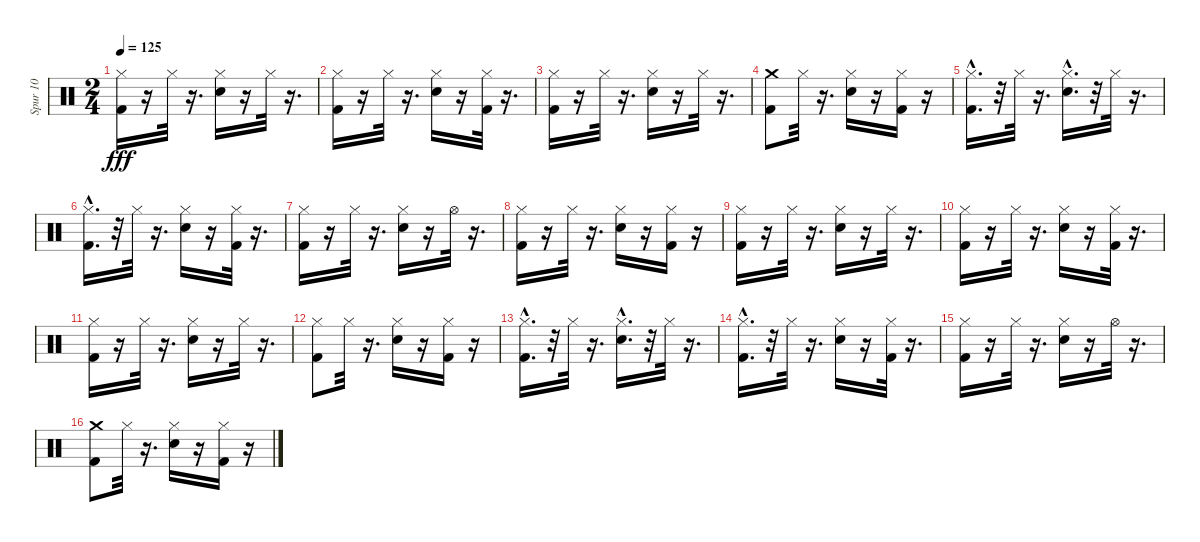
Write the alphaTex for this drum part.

\track ("Spur 10" "Spur 10") {instrument percussion}
\staff {score}
\articulation defaults
\ts (2 4)
\tempo 125
\clef neutral
\ks c
("Kick (hit) 2" "Hi-Hat (closed)").16{dy fff} r.16 "Hi-Hat (closed)".32 r.16{d} ("Snare (hit) 2" "Hi-Hat (closed)").16 r.16 "Hi-Hat (closed)".32 r.16{d} |
("Kick (hit) 2" "Hi-Hat (closed)").16 r.16 "Hi-Hat (closed)".32 r.16{d} ("Snare (hit) 2" "Hi-Hat (closed)").16 r.16 ("Kick (hit) 2" "Hi-Hat (closed)").32 r.16{d} |
("Kick (hit) 2" "Hi-Hat (closed)").16 r.16 "Hi-Hat (closed)".32 r.16{d} ("Snare (hit) 2" "Hi-Hat (closed)").16 r.16 "Hi-Hat (closed)".32 r.16{d} |
("Kick (hit) 2" "Crash medium (hit)").8 "Hi-Hat (closed)".32 r.16{d} ("Snare (hit) 2" "Hi-Hat (closed)").16 r.16 ("Kick (hit) 2" "Hi-Hat (closed)").16 r.16 |
("Kick (hit) 2"{hac} "Hi-Hat (closed)").16{d} r.32 "Hi-Hat (closed)".32 r.16{d} ("Snare (hit) 2"{hac} "Hi-Hat (closed)").16{d} r.32 "Hi-Hat (closed)".32 r.16{d} |
("Kick (hit) 2"{hac} "Hi-Hat (closed)").16{d} r.32 "Hi-Hat (closed)".32 r.16{d} ("Snare (hit) 2" "Hi-Hat (closed)").16 r.16 ("Kick (hit) 2" "Hi-Hat (closed)").32 r.16{d} |
("Kick (hit) 2" "Hi-Hat (closed)").16 r.16 "Hi-Hat (closed)".32 r.16{d} ("Snare (hit) 2" "Hi-Hat (closed)").16 r.16 "Hi-Hat (open)".32 r.16{d} |
("Kick (hit) 2" "Hi-Hat (closed)").16 r.16 "Hi-Hat (closed)".32 r.16{d} ("Snare (hit) 2" "Hi-Hat (closed)").16 r.16 ("Kick (hit) 2" "Hi-Hat (closed)").16 r.16 |
("Kick (hit) 2" "Hi-Hat (closed)").16 r.16 "Hi-Hat (closed)".32 r.16{d} ("Snare (hit) 2" "Hi-Hat (closed)").16 r.16 "Hi-Hat (closed)".32 r.16{d} |
("Kick (hit) 2" "Hi-Hat (closed)").16 r.16 "Hi-Hat (closed)".32 r.16{d} ("Snare (hit) 2" "Hi-Hat (closed)").16 r.16 ("Kick (hit) 2" "Hi-Hat (closed)").32 r.16{d} |
("Kick (hit) 2" "Hi-Hat (closed)").16 r.16 "Hi-Hat (closed)".32 r.16{d} ("Snare (hit) 2" "Hi-Hat (closed)").16 r.16 "Hi-Hat (closed)".32 r.16{d} |
("Kick (hit) 2" "Hi-Hat (closed)").8 "Hi-Hat (closed)".32 r.16{d} ("Snare (hit) 2" "Hi-Hat (closed)").16 r.16 ("Kick (hit) 2" "Hi-Hat (closed)").16 r.16 |
("Kick (hit) 2"{hac} "Hi-Hat (closed)").16{d} r.32 "Hi-Hat (closed)".32 r.16{d} ("Snare (hit) 2"{hac} "Hi-Hat (closed)").16{d} r.32 "Hi-Hat (closed)".32 r.16{d} |
("Kick (hit) 2"{hac} "Hi-Hat (closed)").16{d} r.32 "Hi-Hat (closed)".32 r.16{d} ("Snare (hit) 2" "Hi-Hat (closed)").16 r.16 ("Kick (hit) 2" "Hi-Hat (closed)").32 r.16{d} |
("Kick (hit) 2" "Hi-Hat (closed)").16 r.16 "Hi-Hat (closed)".32 r.16{d} ("Snare (hit) 2" "Hi-Hat (closed)").16 r.16 "Hi-Hat (open)".32 r.16{d} |
("Kick (hit) 2" "Crash medium (hit)").8 "Hi-Hat (closed)".32 r.16{d} ("Snare (hit) 2" "Hi-Hat (closed)").16 r.16 ("Kick (hit) 2" "Hi-Hat (closed)").16 r.16
